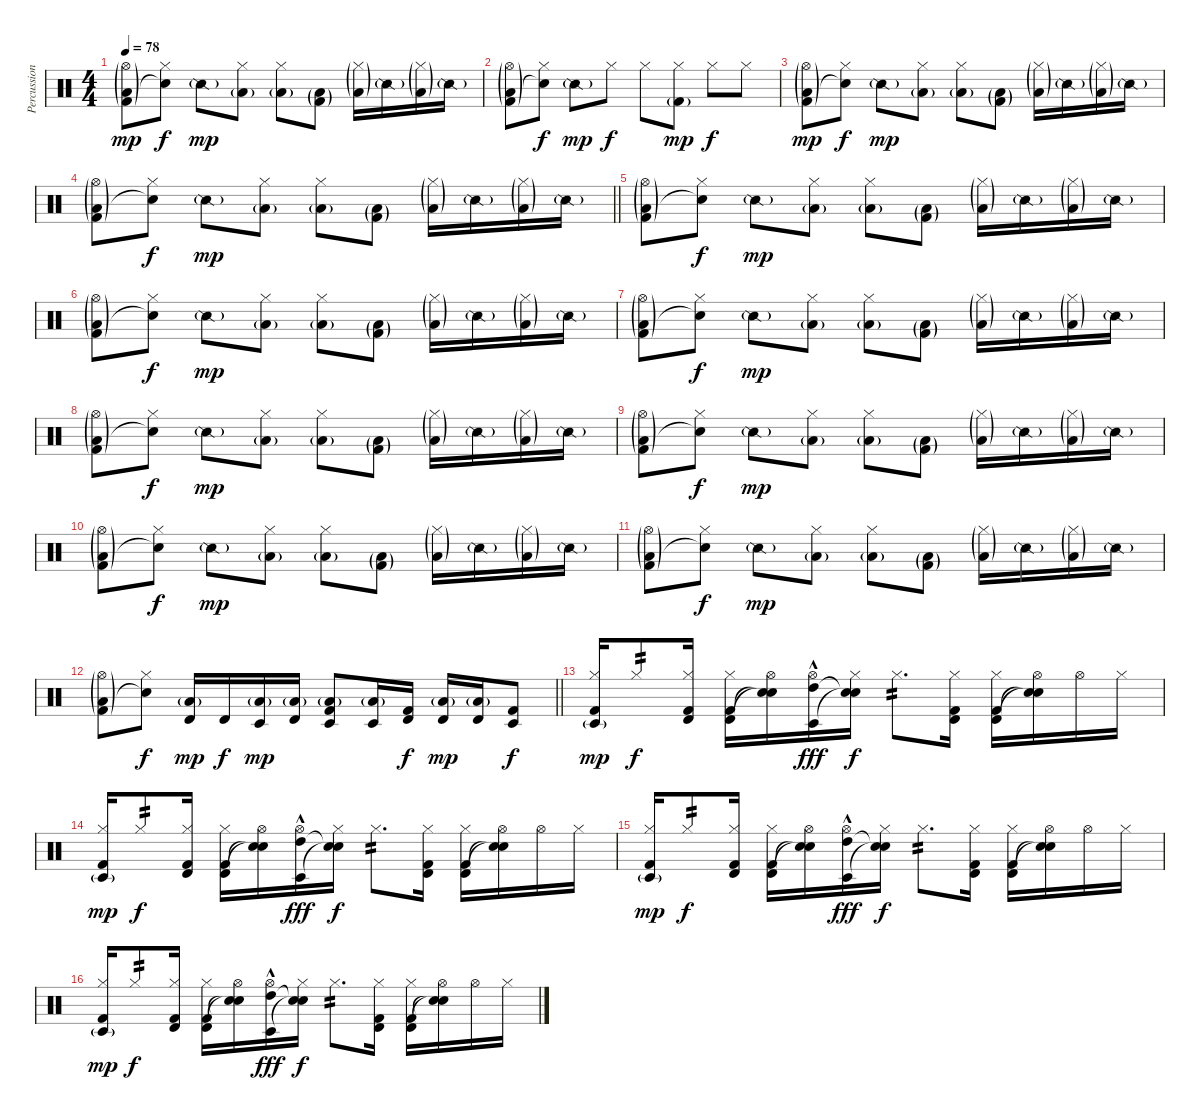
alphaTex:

\track ("Percussion" "Percussion") {instrument percussion}
\staff {score}
\articulation defaults
\ts (4 4)
\tempo 78
\clef neutral
\ks c
("Hi-Hat (open)"{g} "Low Floor Tom (hit)"{g} "Kick (hit) 2"{g}).8{dy mp} ("Hi-Hat (closed)" "Snare (hit)"{t}).8{dy f} "Snare (side stick) 2"{g}.8{dy mp} ("Hi-Hat (closed)" "Low Floor Tom (hit)"{g}).8 ("Hi-Hat (closed)" "Low Floor Tom (hit)"{g}).8 ("Low Floor Tom (hit)"{g} "Kick (hit) 2"{g}).8 ("Hi-Hat (closed)"{g} "Low Floor Tom (hit)"{g}).16 "Snare (side stick) 2"{g}.16 ("Hi-Hat (closed)"{g} "Low Floor Tom (hit)"{g}).16 "Snare (side stick) 2"{g}.16 |
("Hi-Hat (open)"{g} "Low Floor Tom (hit)"{g} "Kick (hit) 2"{g}).8 ("Hi-Hat (closed)" "Snare (hit)"{t}).8{dy f} "Snare (side stick) 2"{g}.8{dy mp} "Hi-Hat (closed)".8{dy f} "Hi-Hat (closed)".8 ("Hi-Hat (closed)" "Kick (hit) 2"{g}).8{dy mp} "Hi-Hat (closed)".8{dy f} "Hi-Hat (closed)".8 |
("Hi-Hat (open)"{g} "Low Floor Tom (hit)"{g} "Kick (hit) 2"{g}).8{dy mp} ("Hi-Hat (closed)" "Snare (hit)"{t}).8{dy f} "Snare (side stick) 2"{g}.8{dy mp} ("Hi-Hat (closed)" "Low Floor Tom (hit)"{g}).8 ("Hi-Hat (closed)" "Low Floor Tom (hit)"{g}).8 ("Low Floor Tom (hit)"{g} "Kick (hit) 2"{g}).8 ("Hi-Hat (closed)"{g} "Low Floor Tom (hit)"{g}).16 "Snare (side stick) 2"{g}.16 ("Hi-Hat (closed)"{g} "Low Floor Tom (hit)"{g}).16 "Snare (side stick) 2"{g}.16 |
\barLineRight lightlight
("Hi-Hat (open)"{g} "Low Floor Tom (hit)"{g} "Kick (hit) 2"{g}).8 ("Hi-Hat (closed)" "Snare (hit)"{t}).8{dy f} "Snare (side stick) 2"{g}.8{dy mp} ("Hi-Hat (closed)" "Low Floor Tom (hit)"{g}).8 ("Hi-Hat (closed)" "Low Floor Tom (hit)"{g}).8 ("Low Floor Tom (hit)"{g} "Kick (hit) 2"{g}).8 ("Hi-Hat (closed)"{g} "Low Floor Tom (hit)"{g}).16 "Snare (side stick) 2"{g}.16 ("Hi-Hat (closed)"{g} "Low Floor Tom (hit)"{g}).16 "Snare (side stick) 2"{g}.16 |
("Hi-Hat (open)"{g} "Low Floor Tom (hit)"{g} "Kick (hit) 2"{g}).8 ("Hi-Hat (closed)" "Snare (hit)"{t}).8{dy f} "Snare (side stick) 2"{g}.8{dy mp} ("Hi-Hat (closed)" "Low Floor Tom (hit)"{g}).8 ("Hi-Hat (closed)" "Low Floor Tom (hit)"{g}).8 ("Low Floor Tom (hit)"{g} "Kick (hit) 2"{g}).8 ("Hi-Hat (closed)"{g} "Low Floor Tom (hit)"{g}).16 "Snare (side stick) 2"{g}.16 ("Hi-Hat (closed)"{g} "Low Floor Tom (hit)"{g}).16 "Snare (side stick) 2"{g}.16 |
("Hi-Hat (open)"{g} "Low Floor Tom (hit)"{g} "Kick (hit) 2"{g}).8 ("Hi-Hat (closed)" "Snare (hit)"{t}).8{dy f} "Snare (side stick) 2"{g}.8{dy mp} ("Hi-Hat (closed)" "Low Floor Tom (hit)"{g}).8 ("Hi-Hat (closed)" "Low Floor Tom (hit)"{g}).8 ("Low Floor Tom (hit)"{g} "Kick (hit) 2"{g}).8 ("Hi-Hat (closed)"{g} "Low Floor Tom (hit)"{g}).16 "Snare (side stick) 2"{g}.16 ("Hi-Hat (closed)"{g} "Low Floor Tom (hit)"{g}).16 "Snare (side stick) 2"{g}.16 |
("Hi-Hat (open)"{g} "Low Floor Tom (hit)"{g} "Kick (hit) 2"{g}).8 ("Hi-Hat (closed)" "Snare (hit)"{t}).8{dy f} "Snare (side stick) 2"{g}.8{dy mp} ("Hi-Hat (closed)" "Low Floor Tom (hit)"{g}).8 ("Hi-Hat (closed)" "Low Floor Tom (hit)"{g}).8 ("Low Floor Tom (hit)"{g} "Kick (hit) 2"{g}).8 ("Hi-Hat (closed)"{g} "Low Floor Tom (hit)"{g}).16 "Snare (side stick) 2"{g}.16 ("Hi-Hat (closed)"{g} "Low Floor Tom (hit)"{g}).16 "Snare (side stick) 2"{g}.16 |
("Hi-Hat (open)"{g} "Low Floor Tom (hit)"{g} "Kick (hit) 2"{g}).8 ("Hi-Hat (closed)" "Snare (hit)"{t}).8{dy f} "Snare (side stick) 2"{g}.8{dy mp} ("Hi-Hat (closed)" "Low Floor Tom (hit)"{g}).8 ("Hi-Hat (closed)" "Low Floor Tom (hit)"{g}).8 ("Low Floor Tom (hit)"{g} "Kick (hit) 2"{g}).8 ("Hi-Hat (closed)"{g} "Low Floor Tom (hit)"{g}).16 "Snare (side stick) 2"{g}.16 ("Hi-Hat (closed)"{g} "Low Floor Tom (hit)"{g}).16 "Snare (side stick) 2"{g}.16 |
("Hi-Hat (open)"{g} "Low Floor Tom (hit)"{g} "Kick (hit) 2"{g}).8 ("Hi-Hat (closed)" "Snare (hit)"{t}).8{dy f} "Snare (side stick) 2"{g}.8{dy mp} ("Hi-Hat (closed)" "Low Floor Tom (hit)"{g}).8 ("Hi-Hat (closed)" "Low Floor Tom (hit)"{g}).8 ("Low Floor Tom (hit)"{g} "Kick (hit) 2"{g}).8 ("Hi-Hat (closed)"{g} "Low Floor Tom (hit)"{g}).16 "Snare (side stick) 2"{g}.16 ("Hi-Hat (closed)"{g} "Low Floor Tom (hit)"{g}).16 "Snare (side stick) 2"{g}.16 |
("Hi-Hat (open)"{g} "Low Floor Tom (hit)"{g} "Kick (hit) 2"{g}).8 ("Hi-Hat (closed)" "Snare (hit)"{t}).8{dy f} "Snare (side stick) 2"{g}.8{dy mp} ("Hi-Hat (closed)" "Low Floor Tom (hit)"{g}).8 ("Hi-Hat (closed)" "Low Floor Tom (hit)"{g}).8 ("Low Floor Tom (hit)"{g} "Kick (hit) 2"{g}).8 ("Hi-Hat (closed)"{g} "Low Floor Tom (hit)"{g}).16 "Snare (side stick) 2"{g}.16 ("Hi-Hat (closed)"{g} "Low Floor Tom (hit)"{g}).16 "Snare (side stick) 2"{g}.16 |
("Hi-Hat (open)"{g} "Low Floor Tom (hit)"{g} "Kick (hit) 2"{g}).8 ("Hi-Hat (closed)" "Snare (hit)"{t}).8{dy f} "Snare (side stick) 2"{g}.8{dy mp} ("Hi-Hat (closed)" "Low Floor Tom (hit)"{g}).8 ("Hi-Hat (closed)" "Low Floor Tom (hit)"{g}).8 ("Low Floor Tom (hit)"{g} "Kick (hit) 2"{g}).8 ("Hi-Hat (closed)"{g} "Low Floor Tom (hit)"{g}).16 "Snare (side stick) 2"{g}.16 ("Hi-Hat (closed)"{g} "Low Floor Tom (hit)"{g}).16 "Snare (side stick) 2"{g}.16 |
\barLineRight lightlight
("Hi-Hat (open)"{g} "Low Floor Tom (hit)"{g} "Kick (hit) 2"{g}).8 ("Hi-Hat (closed)" "Snare (hit)"{t}).8{dy f} ("Timbale high (hit)" "Low Floor Tom (hit)"{g}).16{dy mp} "Timbale high (hit)".16{dy f} ("Timbale low (hit)" "Low Floor Tom (hit)"{g}).16{dy mp} ("Timbale high (hit)" "Low Floor Tom (hit)"{g}).16 ("Timbale low (hit)" "Low Floor Tom (hit)"{g} "Kick (hit) 2").8 ("Timbale low (hit)" "Low Floor Tom (hit)"{g}).16 ("Timbale high (hit)" "Kick (hit) 2").16{dy f} ("Timbale high (hit)" "Low Floor Tom (hit)"{g}).16{dy mp} ("Timbale high (hit)" "Low Floor Tom (hit)"{g}).16 ("Timbale low (hit)" "Kick (hit) 2").8{dy f} |
("Timbale low (hit)"{g} "Hi-Hat (closed)" "Kick (hit) 2").16{dy mp} "Hi-Hat (closed)".8{tp 2 dy f} ("Timbale high (hit)" "Hi-Hat (closed)" "Kick (hit) 2").16 ("Timbale high (hit)" "Hi-Hat (closed)" "Kick (hit) 2").16 ("Snare (hit)"{t} "Hi-Hat (open)" "Snare (hit)"{t}).16 ("Timbale low (hit)" "Hi-Hat (open)" "High Tom (hit)"{hac}).16{dy fff} ("Snare (hit)"{t} "Hi-Hat (closed)" "Snare (hit)"{t}).16{dy f} "Hi-Hat (closed)".8{d tp 2} ("Timbale high (hit)" "Hi-Hat (closed)" "Kick (hit) 2").16 ("Timbale high (hit)" "Hi-Hat (closed)" "Kick (hit) 2").16 ("Snare (hit)"{t} "Hi-Hat (open)" "Snare (hit)"{t}).16 "Hi-Hat (open)".16 "Hi-Hat (closed)".16 |
("Timbale low (hit)"{g} "Hi-Hat (closed)" "Kick (hit) 2").16{dy mp} "Hi-Hat (closed)".8{tp 2 dy f} ("Timbale high (hit)" "Hi-Hat (closed)" "Kick (hit) 2").16 ("Timbale high (hit)" "Hi-Hat (closed)" "Kick (hit) 2").16 ("Snare (hit)"{t} "Hi-Hat (open)" "Snare (hit)"{t}).16 ("Timbale low (hit)" "Hi-Hat (open)" "High Tom (hit)"{hac}).16{dy fff} ("Snare (hit)"{t} "Hi-Hat (closed)" "Snare (hit)"{t}).16{dy f} "Hi-Hat (closed)".8{d tp 2} ("Timbale high (hit)" "Hi-Hat (closed)" "Kick (hit) 2").16 ("Timbale high (hit)" "Hi-Hat (closed)" "Kick (hit) 2").16 ("Snare (hit)"{t} "Hi-Hat (open)" "Snare (hit)"{t}).16 "Hi-Hat (open)".16 "Hi-Hat (closed)".16 |
("Timbale low (hit)"{g} "Hi-Hat (closed)" "Kick (hit) 2").16{dy mp} "Hi-Hat (closed)".8{tp 2 dy f} ("Timbale high (hit)" "Hi-Hat (closed)" "Kick (hit) 2").16 ("Timbale high (hit)" "Hi-Hat (closed)" "Kick (hit) 2").16 ("Snare (hit)"{t} "Hi-Hat (open)" "Snare (hit)"{t}).16 ("Timbale low (hit)" "Hi-Hat (open)" "High Tom (hit)"{hac}).16{dy fff} ("Snare (hit)"{t} "Hi-Hat (closed)" "Snare (hit)"{t}).16{dy f} "Hi-Hat (closed)".8{d tp 2} ("Timbale high (hit)" "Hi-Hat (closed)" "Kick (hit) 2").16 ("Timbale high (hit)" "Hi-Hat (closed)" "Kick (hit) 2").16 ("Snare (hit)"{t} "Hi-Hat (open)" "Snare (hit)"{t}).16 "Hi-Hat (open)".16 "Hi-Hat (closed)".16 |
("Timbale low (hit)"{g} "Hi-Hat (closed)" "Kick (hit) 2").16{dy mp} "Hi-Hat (closed)".8{tp 2 dy f} ("Timbale high (hit)" "Hi-Hat (closed)" "Kick (hit) 2").16 ("Timbale high (hit)" "Hi-Hat (closed)" "Kick (hit) 2").16 ("Snare (hit)"{t} "Hi-Hat (open)" "Snare (hit)"{t}).16 ("Timbale low (hit)" "Hi-Hat (open)" "High Tom (hit)"{hac}).16{dy fff} ("Snare (hit)"{t} "Hi-Hat (closed)" "Snare (hit)"{t}).16{dy f} "Hi-Hat (closed)".8{d tp 2} ("Timbale high (hit)" "Hi-Hat (closed)" "Kick (hit) 2").16 ("Timbale high (hit)" "Hi-Hat (closed)" "Kick (hit) 2").16 ("Snare (hit)"{t} "Hi-Hat (open)" "Snare (hit)"{t}).16 "Hi-Hat (open)".16 "Hi-Hat (closed)".16
